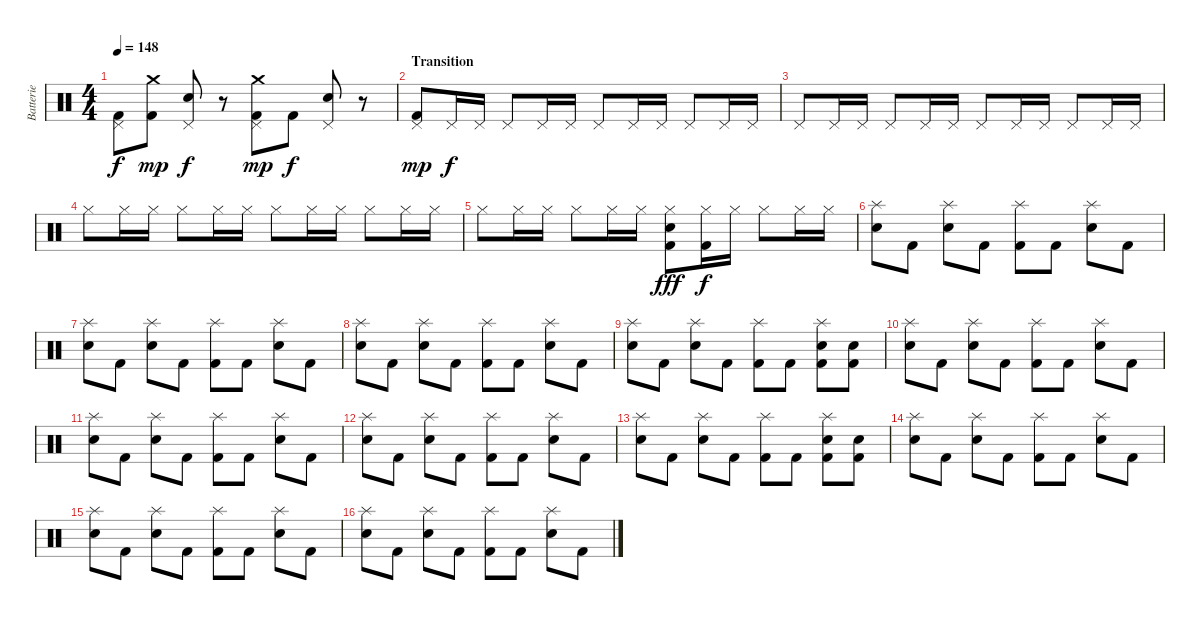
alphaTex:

\track ("Batterie" "Batterie") {instrument percussion}
\staff {score}
\articulation defaults
\ts (4 4)
\tempo 148
\clef neutral
\ks c
("Pedal Hi-Hat (hit)" "Kick (hit) 2").8{dy f} ("Crash medium (hit)" "Kick (hit) 2").8{dy mp} ("Pedal Hi-Hat (hit)" "Electric Snare (hit)").8{dy f} r.8 ("Crash medium (hit)" "Pedal Hi-Hat (hit)" "Kick (hit) 2").8{dy mp} "Kick (hit) 2".8{dy f} ("Pedal Hi-Hat (hit)" "Electric Snare (hit)").8 r.8 |
\section ("" "Transition")
("Pedal Hi-Hat (hit)" "Kick (hit) 2").8{dy mp volume 16} "Pedal Hi-Hat (hit)".16{dy f} "Pedal Hi-Hat (hit)".16 "Pedal Hi-Hat (hit)".8 "Pedal Hi-Hat (hit)".16 "Pedal Hi-Hat (hit)".16 "Pedal Hi-Hat (hit)".8 "Pedal Hi-Hat (hit)".16 "Pedal Hi-Hat (hit)".16 "Pedal Hi-Hat (hit)".8 "Pedal Hi-Hat (hit)".16 "Pedal Hi-Hat (hit)".16 |
"Pedal Hi-Hat (hit)".8 "Pedal Hi-Hat (hit)".16 "Pedal Hi-Hat (hit)".16 "Pedal Hi-Hat (hit)".8 "Pedal Hi-Hat (hit)".16 "Pedal Hi-Hat (hit)".16 "Pedal Hi-Hat (hit)".8 "Pedal Hi-Hat (hit)".16 "Pedal Hi-Hat (hit)".16 "Pedal Hi-Hat (hit)".8 "Pedal Hi-Hat (hit)".16 "Pedal Hi-Hat (hit)".16 |
"Hi-Hat (closed)".8 "Hi-Hat (closed)".16 "Hi-Hat (closed)".16 "Hi-Hat (closed)".8 "Hi-Hat (closed)".16 "Hi-Hat (closed)".16 "Hi-Hat (closed)".8 "Hi-Hat (closed)".16 "Hi-Hat (closed)".16 "Hi-Hat (closed)".8 "Hi-Hat (closed)".16 "Hi-Hat (closed)".16 |
"Hi-Hat (closed)".8 "Hi-Hat (closed)".16 "Hi-Hat (closed)".16 "Hi-Hat (closed)".8 "Hi-Hat (closed)".16 "Hi-Hat (closed)".16 ("Hi-Hat (closed)" "Electric Snare (hit)" "Kick (hit) 2").8{dy fff} ("Hi-Hat (closed)" "Kick (hit) 2").16{dy f} "Hi-Hat (closed)".16 "Hi-Hat (closed)".8 "Hi-Hat (closed)".16 "Hi-Hat (closed)".16 |
("Splash (hit)" "Electric Snare (hit)").8 "Kick (hit) 2".8 ("Splash (hit)" "Electric Snare (hit)").8 "Kick (hit) 2".8 ("Splash (hit)" "Kick (hit) 2").8 "Kick (hit) 2".8 ("Splash (hit)" "Electric Snare (hit)").8 "Kick (hit) 2".8 |
("Splash (hit)" "Electric Snare (hit)").8 "Kick (hit) 2".8 ("Splash (hit)" "Electric Snare (hit)").8 "Kick (hit) 2".8 ("Splash (hit)" "Kick (hit) 2").8 "Kick (hit) 2".8 ("Splash (hit)" "Electric Snare (hit)").8 "Kick (hit) 2".8 |
("Splash (hit)" "Electric Snare (hit)").8 "Kick (hit) 2".8 ("Splash (hit)" "Electric Snare (hit)").8 "Kick (hit) 2".8 ("Splash (hit)" "Kick (hit) 2").8 "Kick (hit) 2".8 ("Splash (hit)" "Electric Snare (hit)").8 "Kick (hit) 2".8 |
("Splash (hit)" "Electric Snare (hit)").8 "Kick (hit) 2".8 ("Splash (hit)" "Electric Snare (hit)").8 "Kick (hit) 2".8 ("Splash (hit)" "Kick (hit) 2").8 "Kick (hit) 2".8 ("Splash (hit)" "Electric Snare (hit)" "Kick (hit) 2").8 ("Electric Snare (hit)" "Kick (hit) 2").8 |
("Splash (hit)" "Electric Snare (hit)").8 "Kick (hit) 2".8 ("Splash (hit)" "Electric Snare (hit)").8 "Kick (hit) 2".8 ("Splash (hit)" "Kick (hit) 2").8 "Kick (hit) 2".8 ("Splash (hit)" "Electric Snare (hit)").8 "Kick (hit) 2".8 |
("Splash (hit)" "Electric Snare (hit)").8 "Kick (hit) 2".8 ("Splash (hit)" "Electric Snare (hit)").8 "Kick (hit) 2".8 ("Splash (hit)" "Kick (hit) 2").8 "Kick (hit) 2".8 ("Splash (hit)" "Electric Snare (hit)").8 "Kick (hit) 2".8 |
("Splash (hit)" "Electric Snare (hit)").8 "Kick (hit) 2".8 ("Splash (hit)" "Electric Snare (hit)").8 "Kick (hit) 2".8 ("Splash (hit)" "Kick (hit) 2").8 "Kick (hit) 2".8 ("Splash (hit)" "Electric Snare (hit)").8 "Kick (hit) 2".8 |
("Splash (hit)" "Electric Snare (hit)").8 "Kick (hit) 2".8 ("Splash (hit)" "Electric Snare (hit)").8 "Kick (hit) 2".8 ("Splash (hit)" "Kick (hit) 2").8 "Kick (hit) 2".8 ("Splash (hit)" "Electric Snare (hit)" "Kick (hit) 2").8 ("Electric Snare (hit)" "Kick (hit) 2").8 |
("Splash (hit)" "Electric Snare (hit)").8 "Kick (hit) 2".8 ("Splash (hit)" "Electric Snare (hit)").8 "Kick (hit) 2".8 ("Splash (hit)" "Kick (hit) 2").8 "Kick (hit) 2".8 ("Splash (hit)" "Electric Snare (hit)").8 "Kick (hit) 2".8 |
("Splash (hit)" "Electric Snare (hit)").8 "Kick (hit) 2".8 ("Splash (hit)" "Electric Snare (hit)").8 "Kick (hit) 2".8 ("Splash (hit)" "Kick (hit) 2").8 "Kick (hit) 2".8 ("Splash (hit)" "Electric Snare (hit)").8 "Kick (hit) 2".8 |
("Splash (hit)" "Electric Snare (hit)").8 "Kick (hit) 2".8 ("Splash (hit)" "Electric Snare (hit)").8 "Kick (hit) 2".8 ("Splash (hit)" "Kick (hit) 2").8 "Kick (hit) 2".8 ("Splash (hit)" "Electric Snare (hit)").8 "Kick (hit) 2".8
